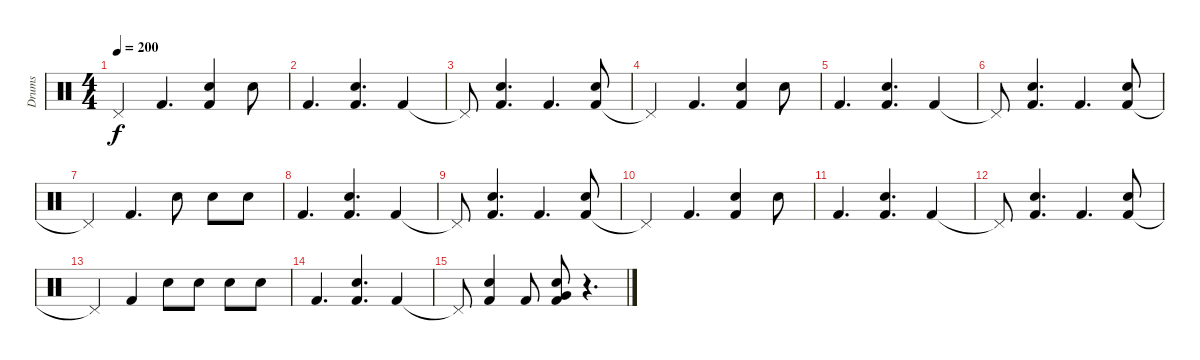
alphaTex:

\track ("Drums" "Drums") {instrument percussion}
\staff {score}
\articulation defaults
\ts (4 4)
\tempo 200
\clef neutral
\ks c "Pedal Hi-Hat (hit)"{t}.4{dy f} "Kick (hit) 2".4{d}
("Kick (hit) 2" "Snare (hit) 2").4 "Snare (hit) 2".8 |
"Kick (hit) 2".4{d} ("Kick (hit) 2" "Snare (hit) 2").4{d} "Kick (hit) 2".4 |
"Pedal Hi-Hat (hit)"{t}.8 ("Kick (hit) 2" "Snare (hit) 2").4{d} "Kick (hit) 2".4{d} ("Kick (hit) 2" "Snare (hit) 2").8 |
"Pedal Hi-Hat (hit)"{t}.4 "Kick (hit) 2".4{d} ("Kick (hit) 2" "Snare (hit) 2").4 "Snare (hit) 2".8 |
"Kick (hit) 2".4{d} ("Kick (hit) 2" "Snare (hit) 2").4{d} "Kick (hit) 2".4 |
"Pedal Hi-Hat (hit)"{t}.8 ("Kick (hit) 2" "Snare (hit) 2").4{d} "Kick (hit) 2".4{d} ("Kick (hit) 2" "Snare (hit) 2").8 |
"Pedal Hi-Hat (hit)"{t}.4 "Kick (hit) 2".4{d} "Snare (hit) 2".8 "Snare (hit) 2".8 "Snare (hit) 2".8 |
"Kick (hit) 2".4{d} ("Kick (hit) 2" "Snare (hit) 2").4{d} "Kick (hit) 2".4 |
"Pedal Hi-Hat (hit)"{t}.8 ("Kick (hit) 2" "Snare (hit) 2").4{d} "Kick (hit) 2".4{d} ("Kick (hit) 2" "Snare (hit) 2").8 |
"Pedal Hi-Hat (hit)"{t}.4 "Kick (hit) 2".4{d} ("Kick (hit) 2" "Snare (hit) 2").4 "Snare (hit) 2".8 |
"Kick (hit) 2".4{d} ("Kick (hit) 2" "Snare (hit) 2").4{d} "Kick (hit) 2".4 |
"Pedal Hi-Hat (hit)"{t}.8 ("Kick (hit) 2" "Snare (hit) 2").4{d} "Kick (hit) 2".4{d} ("Kick (hit) 2" "Snare (hit) 2").8 |
"Pedal Hi-Hat (hit)"{t}.4 "Kick (hit) 2".4 "Snare (hit) 2".8 "Snare (hit) 2".8 "Snare (hit) 2".8 "Snare (hit) 2".8 |
"Kick (hit) 2".4{d} ("Kick (hit) 2" "Snare (hit) 2").4{d} "Kick (hit) 2".4 |
"Pedal Hi-Hat (hit)"{t}.8 ("Kick (hit) 2" "Snare (hit) 2").4 "Kick (hit) 2".8 ("Kick (hit) 2" "Snare (hit) 2" "Very Low Tom (hit)").8 r.4{d}
